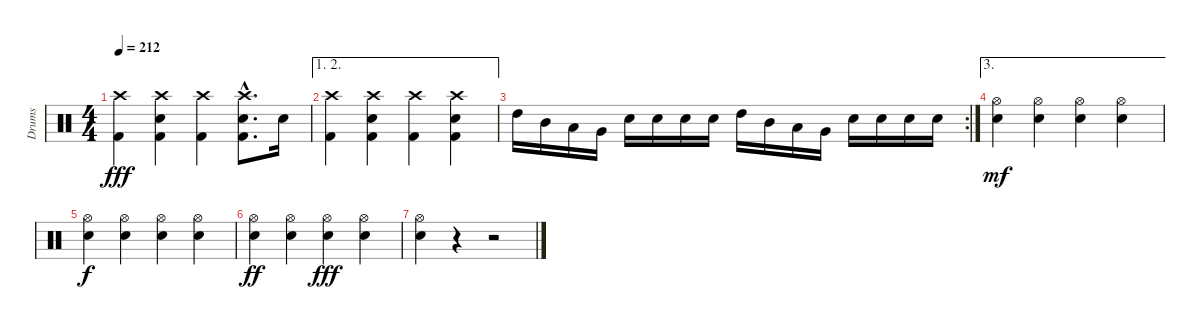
\track ("Drums" "Drums") {instrument percussion}
\staff {score}
\articulation defaults
\ts (4 4)
\tempo 212
\clef neutral
\ks c
("Crash high (hit)" "Kick (hit) 2").4{dy fff} ("Crash high (hit)" "Electric Snare (hit)" "Kick (hit) 2").4 ("Crash high (hit)" "Kick (hit) 2").4 ("Crash high (hit)"{hac} "Electric Snare (hit)"{hac} "Kick (hit) 2"{hac}).8{d} "Electric Snare (hit)".16 |
\ae (1 2)
("Crash high (hit)" "Kick (hit) 2").4 ("Crash high (hit)" "Electric Snare (hit)" "Kick (hit) 2").4 ("Crash high (hit)" "Kick (hit) 2").4 ("Crash high (hit)" "Electric Snare (hit)" "Kick (hit) 2").4 |
\rc 2 "High Tom (hit)".16 "Mid Tom (hit)".16 "Low Tom (hit)".16 "Very Low Tom (hit)".16 "Electric Snare (hit)".16 "Electric Snare (hit)".16 "Electric Snare (hit)".16 "Electric Snare (hit)".16 "High Tom (hit)".16 "Mid Tom (hit)".16 "Low Tom (hit)".16 "Very Low Tom (hit)".16 "Electric Snare (hit)".16 "Electric Snare (hit)".16 "Electric Snare (hit)".16 "Electric Snare (hit)".16
|
\ae 3
("Hi-Hat (open)" "Electric Snare (hit)").4{dy mf} ("Hi-Hat (open)" "Electric Snare (hit)").4 ("Hi-Hat (open)" "Electric Snare (hit)").4 ("Hi-Hat (open)" "Electric Snare (hit)").4 |
("Hi-Hat (open)" "Electric Snare (hit)").4{dy f} ("Hi-Hat (open)" "Electric Snare (hit)").4 ("Hi-Hat (open)" "Electric Snare (hit)").4 ("Hi-Hat (open)" "Electric Snare (hit)").4 |
("Hi-Hat (open)" "Electric Snare (hit)").4{dy ff} ("Hi-Hat (open)" "Electric Snare (hit)").4 ("Hi-Hat (open)" "Electric Snare (hit)").4{dy fff} ("Hi-Hat (open)" "Electric Snare (hit)").4 |
("Hi-Hat (open)" "Electric Snare (hit)").4 r.4 r.2
